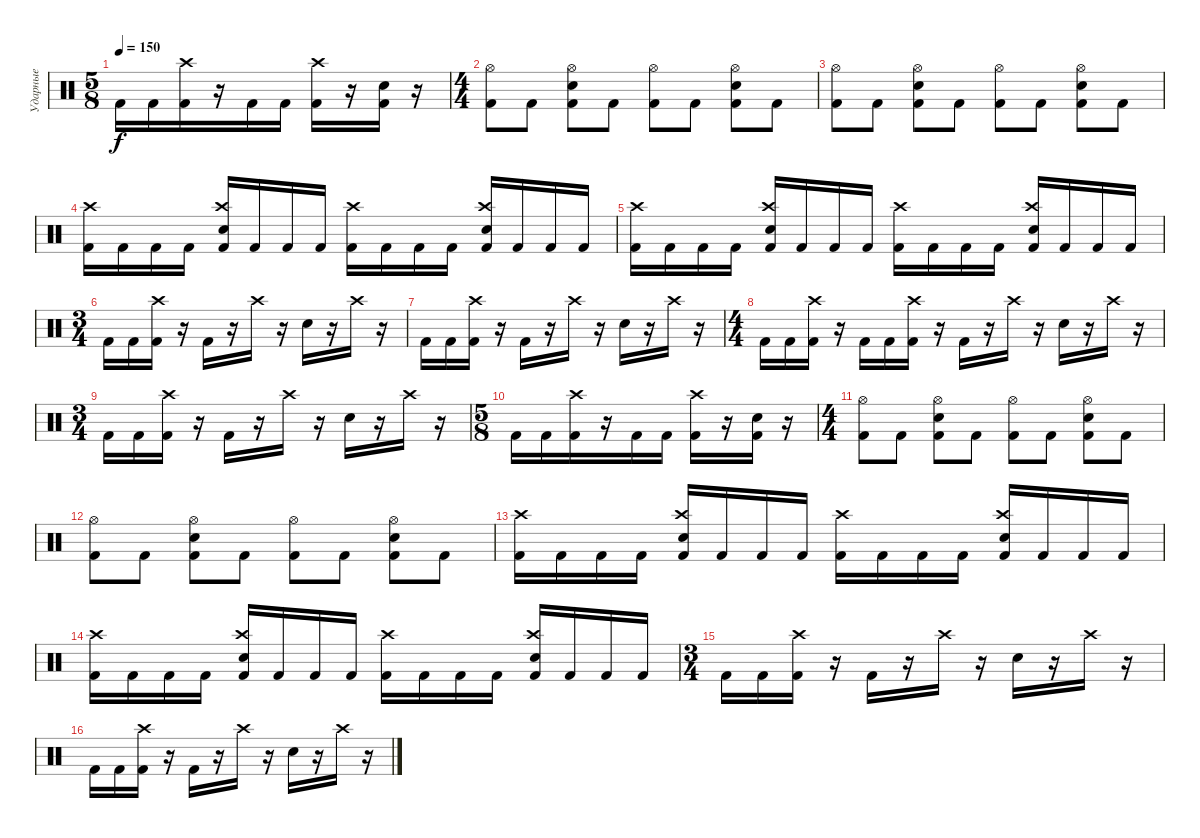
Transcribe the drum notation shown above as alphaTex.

\track ("Ударные" "Ударные") {instrument percussion}
\staff {score}
\articulation defaults
\ts (5 8)
\tempo 150
\clef neutral
\ks c "Kick (hit) 2".16{dy f} "Kick (hit) 2".16
("Crash high (hit)" "Kick (hit) 2").16 r.16 "Kick (hit) 2".16 "Kick (hit) 2".16 ("Crash high (hit)" "Kick (hit) 2").16 r.16 ("Electric Snare (hit)" "Kick (hit) 2").16 r.16 |
\ts (4 4)
("Hi-Hat (open)" "Kick (hit) 2").8 "Kick (hit) 2".8 ("Hi-Hat (open)" "Electric Snare (hit)" "Kick (hit) 2").8 "Kick (hit) 2".8 ("Hi-Hat (open)" "Kick (hit) 2").8 "Kick (hit) 2".8 ("Hi-Hat (open)" "Electric Snare (hit)" "Kick (hit) 2").8 "Kick (hit) 2".8 |
("Hi-Hat (open)" "Kick (hit) 2").8 "Kick (hit) 2".8 ("Hi-Hat (open)" "Electric Snare (hit)" "Kick (hit) 2").8 "Kick (hit) 2".8 ("Hi-Hat (open)" "Kick (hit) 2").8 "Kick (hit) 2".8 ("Hi-Hat (open)" "Electric Snare (hit)" "Kick (hit) 2").8 "Kick (hit) 2".8 |
("Crash high (hit)" "Kick (hit) 2").16 "Kick (hit) 2".16 "Kick (hit) 2".16 "Kick (hit) 2".16 ("Crash high (hit)" "Electric Snare (hit)" "Kick (hit) 2").16 "Kick (hit) 2".16 "Kick (hit) 2".16 "Kick (hit) 2".16 ("Crash high (hit)" "Kick (hit) 2").16 "Kick (hit) 2".16 "Kick (hit) 2".16 "Kick (hit) 2".16 ("Crash high (hit)" "Electric Snare (hit)" "Kick (hit) 2").16 "Kick (hit) 2".16 "Kick (hit) 2".16 "Kick (hit) 2".16 |
("Crash high (hit)" "Kick (hit) 2").16 "Kick (hit) 2".16 "Kick (hit) 2".16 "Kick (hit) 2".16 ("Crash high (hit)" "Electric Snare (hit)" "Kick (hit) 2").16 "Kick (hit) 2".16 "Kick (hit) 2".16 "Kick (hit) 2".16 ("Crash high (hit)" "Kick (hit) 2").16 "Kick (hit) 2".16 "Kick (hit) 2".16 "Kick (hit) 2".16 ("Crash high (hit)" "Electric Snare (hit)" "Kick (hit) 2").16 "Kick (hit) 2".16 "Kick (hit) 2".16 "Kick (hit) 2".16 |
\ts (3 4)
"Kick (hit) 2".16 "Kick (hit) 2".16 ("Crash high (hit)" "Kick (hit) 2").16 r.16 "Kick (hit) 2".16 r.16 "Crash high (hit)".16 r.16 "Electric Snare (hit)".16 r.16 "Crash high (hit)".16 r.16 |
"Kick (hit) 2".16 "Kick (hit) 2".16 ("Crash high (hit)" "Kick (hit) 2").16 r.16 "Kick (hit) 2".16 r.16 "Crash high (hit)".16 r.16 "Electric Snare (hit)".16 r.16 "Crash high (hit)".16 r.16 |
\ts (4 4)
"Kick (hit) 2".16 "Kick (hit) 2".16 ("Crash high (hit)" "Kick (hit) 2").16 r.16 "Kick (hit) 2".16 "Kick (hit) 2".16 ("Crash high (hit)" "Kick (hit) 2").16 r.16 "Kick (hit) 2".16 r.16 "Crash high (hit)".16 r.16 "Electric Snare (hit)".16 r.16 "Crash high (hit)".16 r.16 |
\ts (3 4)
"Kick (hit) 2".16 "Kick (hit) 2".16 ("Crash high (hit)" "Kick (hit) 2").16 r.16 "Kick (hit) 2".16 r.16 "Crash high (hit)".16 r.16 "Electric Snare (hit)".16 r.16 "Crash high (hit)".16 r.16 |
\ts (5 8)
"Kick (hit) 2".16 "Kick (hit) 2".16 ("Crash high (hit)" "Kick (hit) 2").16 r.16 "Kick (hit) 2".16 "Kick (hit) 2".16 ("Crash high (hit)" "Kick (hit) 2").16 r.16 ("Electric Snare (hit)" "Kick (hit) 2").16 r.16 |
\ts (4 4)
("Hi-Hat (open)" "Kick (hit) 2").8 "Kick (hit) 2".8 ("Hi-Hat (open)" "Electric Snare (hit)" "Kick (hit) 2").8 "Kick (hit) 2".8 ("Hi-Hat (open)" "Kick (hit) 2").8 "Kick (hit) 2".8 ("Hi-Hat (open)" "Electric Snare (hit)" "Kick (hit) 2").8 "Kick (hit) 2".8 |
("Hi-Hat (open)" "Kick (hit) 2").8 "Kick (hit) 2".8 ("Hi-Hat (open)" "Electric Snare (hit)" "Kick (hit) 2").8 "Kick (hit) 2".8 ("Hi-Hat (open)" "Kick (hit) 2").8 "Kick (hit) 2".8 ("Hi-Hat (open)" "Electric Snare (hit)" "Kick (hit) 2").8 "Kick (hit) 2".8 |
("Crash high (hit)" "Kick (hit) 2").16 "Kick (hit) 2".16 "Kick (hit) 2".16 "Kick (hit) 2".16 ("Crash high (hit)" "Electric Snare (hit)" "Kick (hit) 2").16 "Kick (hit) 2".16 "Kick (hit) 2".16 "Kick (hit) 2".16 ("Crash high (hit)" "Kick (hit) 2").16 "Kick (hit) 2".16 "Kick (hit) 2".16 "Kick (hit) 2".16 ("Crash high (hit)" "Electric Snare (hit)" "Kick (hit) 2").16 "Kick (hit) 2".16 "Kick (hit) 2".16 "Kick (hit) 2".16 |
("Crash high (hit)" "Kick (hit) 2").16 "Kick (hit) 2".16 "Kick (hit) 2".16 "Kick (hit) 2".16 ("Crash high (hit)" "Electric Snare (hit)" "Kick (hit) 2").16 "Kick (hit) 2".16 "Kick (hit) 2".16 "Kick (hit) 2".16 ("Crash high (hit)" "Kick (hit) 2").16 "Kick (hit) 2".16 "Kick (hit) 2".16 "Kick (hit) 2".16 ("Crash high (hit)" "Electric Snare (hit)" "Kick (hit) 2").16 "Kick (hit) 2".16 "Kick (hit) 2".16 "Kick (hit) 2".16 |
\ts (3 4)
"Kick (hit) 2".16 "Kick (hit) 2".16 ("Crash high (hit)" "Kick (hit) 2").16 r.16 "Kick (hit) 2".16 r.16 "Crash high (hit)".16 r.16 "Electric Snare (hit)".16 r.16 "Crash high (hit)".16 r.16 |
"Kick (hit) 2".16 "Kick (hit) 2".16 ("Crash high (hit)" "Kick (hit) 2").16 r.16 "Kick (hit) 2".16 r.16 "Crash high (hit)".16 r.16 "Electric Snare (hit)".16 r.16 "Crash high (hit)".16 r.16
